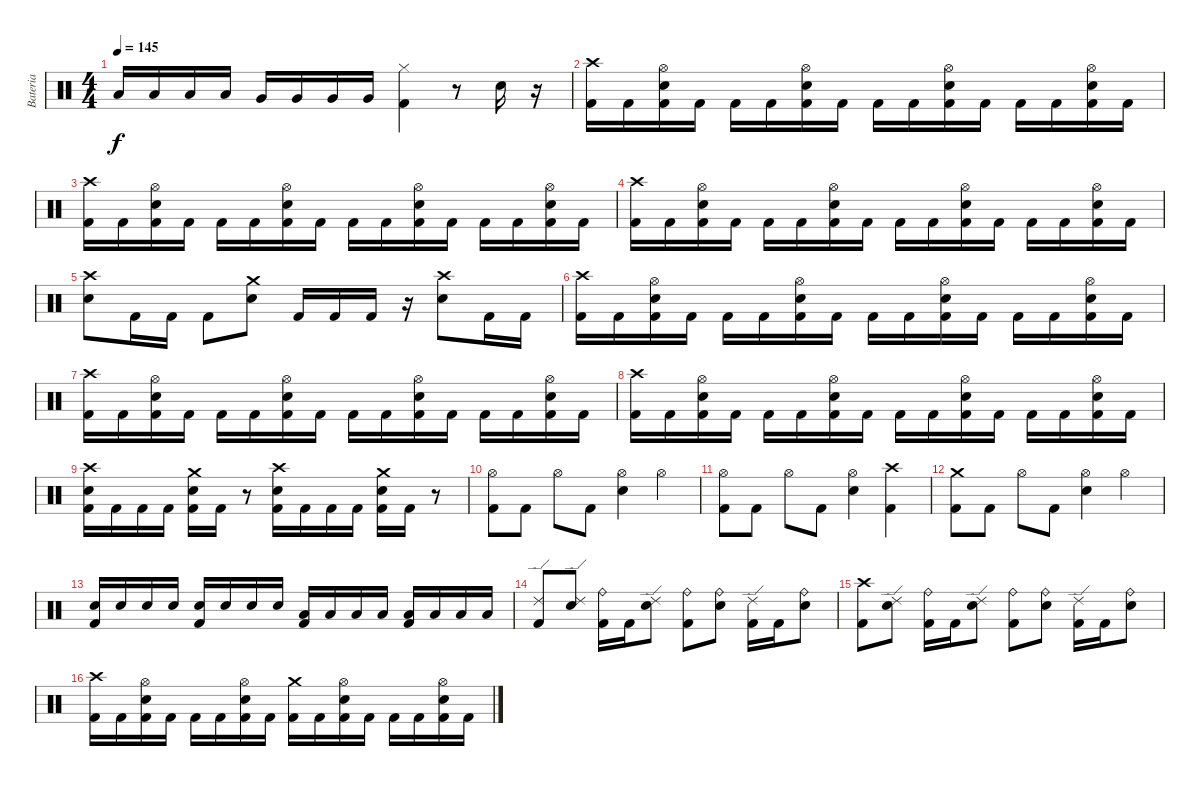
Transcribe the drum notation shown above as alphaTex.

\track ("Bateria" "Bateria") {instrument percussion}
\staff {score}
\articulation defaults
\ts (4 4)
\tempo 145
\clef neutral
\ks c "Low Tom (hit)".16{dy f} "Low Tom (hit)".16 "Low Tom (hit)".16 "Low Tom (hit)".16 "Very Low Tom (hit)".16 "Very Low Tom (hit)".16 "Very Low Tom (hit)".16 "Very Low Tom (hit)".16
("Hi-Hat (closed)" "Kick (hit) 2").4 r.8 "Snare (hit) 2".16 r.16 |
("Crash high (hit)" "Kick (hit) 2").16 "Kick (hit) 2".16 ("Hi-Hat (open)" "Snare (hit) 2" "Kick (hit) 2").16 "Kick (hit) 2".16 "Kick (hit) 2".16 "Kick (hit) 2".16 ("Hi-Hat (open)" "Snare (hit) 2" "Kick (hit) 2").16 "Kick (hit) 2".16 "Kick (hit) 2".16 "Kick (hit) 2".16 ("Hi-Hat (open)" "Snare (hit) 2" "Kick (hit) 2").16 "Kick (hit) 2".16 "Kick (hit) 2".16 "Kick (hit) 2".16 ("Hi-Hat (open)" "Snare (hit) 2" "Kick (hit) 2").16 "Kick (hit) 2".16 |
("Crash high (hit)" "Kick (hit) 2").16 "Kick (hit) 2".16 ("Hi-Hat (open)" "Snare (hit) 2" "Kick (hit) 2").16 "Kick (hit) 2".16 "Kick (hit) 2".16 "Kick (hit) 2".16 ("Hi-Hat (open)" "Snare (hit) 2" "Kick (hit) 2").16 "Kick (hit) 2".16 "Kick (hit) 2".16 "Kick (hit) 2".16 ("Hi-Hat (open)" "Snare (hit) 2" "Kick (hit) 2").16 "Kick (hit) 2".16 "Kick (hit) 2".16 "Kick (hit) 2".16 ("Hi-Hat (open)" "Snare (hit) 2" "Kick (hit) 2").16 "Kick (hit) 2".16 |
("Crash high (hit)" "Kick (hit) 2").16 "Kick (hit) 2".16 ("Hi-Hat (open)" "Snare (hit) 2" "Kick (hit) 2").16 "Kick (hit) 2".16 "Kick (hit) 2".16 "Kick (hit) 2".16 ("Hi-Hat (open)" "Snare (hit) 2" "Kick (hit) 2").16 "Kick (hit) 2".16 "Kick (hit) 2".16 "Kick (hit) 2".16 ("Hi-Hat (open)" "Snare (hit) 2" "Kick (hit) 2").16 "Kick (hit) 2".16 "Kick (hit) 2".16 "Kick (hit) 2".16 ("Hi-Hat (open)" "Snare (hit) 2" "Kick (hit) 2").16 "Kick (hit) 2".16 |
("Crash high (hit)" "Snare (hit) 2").8 "Kick (hit) 2".16 "Kick (hit) 2".16 "Kick (hit) 2".8 ("Crash medium (hit)" "Snare (hit) 2").8 "Kick (hit) 2".16 "Kick (hit) 2".16 "Kick (hit) 2".16 r.16 ("Crash high (hit)" "Snare (hit) 2").8 "Kick (hit) 2".16 "Kick (hit) 2".16 |
("Crash high (hit)" "Kick (hit) 2").16 "Kick (hit) 2".16 ("Hi-Hat (open)" "Snare (hit) 2" "Kick (hit) 2").16 "Kick (hit) 2".16 "Kick (hit) 2".16 "Kick (hit) 2".16 ("Hi-Hat (open)" "Snare (hit) 2" "Kick (hit) 2").16 "Kick (hit) 2".16 "Kick (hit) 2".16 "Kick (hit) 2".16 ("Hi-Hat (open)" "Snare (hit) 2" "Kick (hit) 2").16 "Kick (hit) 2".16 "Kick (hit) 2".16 "Kick (hit) 2".16 ("Hi-Hat (open)" "Snare (hit) 2" "Kick (hit) 2").16 "Kick (hit) 2".16 |
("Kick (hit) 2" "Crash high (hit)").16 "Kick (hit) 2".16 ("Hi-Hat (open)" "Snare (hit) 2" "Kick (hit) 2").16 "Kick (hit) 2".16 "Kick (hit) 2".16 "Kick (hit) 2".16 ("Hi-Hat (open)" "Snare (hit) 2" "Kick (hit) 2").16 "Kick (hit) 2".16 "Kick (hit) 2".16 "Kick (hit) 2".16 ("Hi-Hat (open)" "Snare (hit) 2" "Kick (hit) 2").16 "Kick (hit) 2".16 "Kick (hit) 2".16 "Kick (hit) 2".16 ("Hi-Hat (open)" "Snare (hit) 2" "Kick (hit) 2").16 "Kick (hit) 2".16 |
("Kick (hit) 2" "Crash high (hit)").16 "Kick (hit) 2".16 ("Hi-Hat (open)" "Snare (hit) 2" "Kick (hit) 2").16 "Kick (hit) 2".16 "Kick (hit) 2".16 "Kick (hit) 2".16 ("Hi-Hat (open)" "Snare (hit) 2" "Kick (hit) 2").16 "Kick (hit) 2".16 "Kick (hit) 2".16 "Kick (hit) 2".16 ("Hi-Hat (open)" "Snare (hit) 2" "Kick (hit) 2").16 "Kick (hit) 2".16 "Kick (hit) 2".16 "Kick (hit) 2".16 ("Hi-Hat (open)" "Snare (hit) 2" "Kick (hit) 2").16 "Kick (hit) 2".16 |
("Kick (hit) 2" "Crash high (hit)" "Snare (hit) 2").16 "Kick (hit) 2".16 "Kick (hit) 2".16 "Kick (hit) 2".16 ("Kick (hit) 2" "Crash medium (hit)" "Snare (hit) 2").16 "Kick (hit) 2".16 r.8 ("Kick (hit) 2" "Crash high (hit)" "Snare (hit) 2").16 "Kick (hit) 2".16 "Kick (hit) 2".16 "Kick (hit) 2".16 ("Kick (hit) 2" "Crash medium (hit)" "Snare (hit) 2").16 "Kick (hit) 2".16 r.8 |
("Kick (hit) 2" "Hi-Hat (open)").8 "Kick (hit) 2".8 "Hi-Hat (open)".8 "Kick (hit) 2".8 ("Snare (hit) 2" "Hi-Hat (open)").4 "Hi-Hat (open)".4 |
("Kick (hit) 2" "Hi-Hat (open)").8 "Kick (hit) 2".8 "Hi-Hat (open)".8 "Kick (hit) 2".8 ("Snare (hit) 2" "Hi-Hat (open)").4 ("Crash high (hit)" "Kick (hit) 2").4 |
("Kick (hit) 2" "Crash medium (hit)").8 "Kick (hit) 2".8 "Hi-Hat (open)".8 "Kick (hit) 2".8 ("Snare (hit) 2" "Hi-Hat (open)").4 "Hi-Hat (open)".4 |
("Kick (hit) 2" "Snare (hit) 2").16 "Snare (hit) 2".16 "Snare (hit) 2".16 "Snare (hit) 2".16 ("Kick (hit) 2" "Snare (hit) 2").16 "Snare (hit) 2".16 "Snare (hit) 2".16 "Snare (hit) 2".16 ("Kick (hit) 2" "Low Tom (hit)").16 "Low Tom (hit)".16 "Low Tom (hit)".16 "Low Tom (hit)".16 ("Kick (hit) 2" "Low Tom (hit)").16 "Low Tom (hit)".16 "Low Tom (hit)".16 "Low Tom (hit)".16 |
("Ride (edge) 2" "Kick (hit) 2").8 ("Ride (edge) 2" "Snare (hit) 2").8 ("Ride (bell)" "Kick (hit) 2").16 "Kick (hit) 2".16 ("Ride (edge) 2" "Snare (hit) 2").8 ("Ride (bell)" "Kick (hit) 2").8 ("Ride (bell)" "Snare (hit) 2").8 ("Ride (edge) 2" "Kick (hit) 2").16 "Kick (hit) 2".16 ("Ride (bell)" "Snare (hit) 2").8 |
("Crash high (hit)" "Kick (hit) 2").8 ("Ride (edge) 2" "Snare (hit) 2").8 ("Ride (bell)" "Kick (hit) 2").16 "Kick (hit) 2".16 ("Ride (edge) 2" "Snare (hit) 2").8 ("Ride (bell)" "Kick (hit) 2").8 ("Ride (bell)" "Snare (hit) 2").8 ("Ride (edge) 2" "Kick (hit) 2").16 "Kick (hit) 2".16 ("Ride (bell)" "Snare (hit) 2").8 |
("Crash high (hit)" "Kick (hit) 2").16 "Kick (hit) 2".16 ("Hi-Hat (open)" "Snare (hit) 2" "Kick (hit) 2").16 "Kick (hit) 2".16 "Kick (hit) 2".16 "Kick (hit) 2".16 ("Hi-Hat (open)" "Snare (hit) 2" "Kick (hit) 2").16 "Kick (hit) 2".16 ("Crash medium (hit)" "Kick (hit) 2").16 "Kick (hit) 2".16 ("Hi-Hat (open)" "Snare (hit) 2" "Kick (hit) 2").16 "Kick (hit) 2".16 "Kick (hit) 2".16 "Kick (hit) 2".16 ("Hi-Hat (open)" "Snare (hit) 2" "Kick (hit) 2").16 "Kick (hit) 2".16
